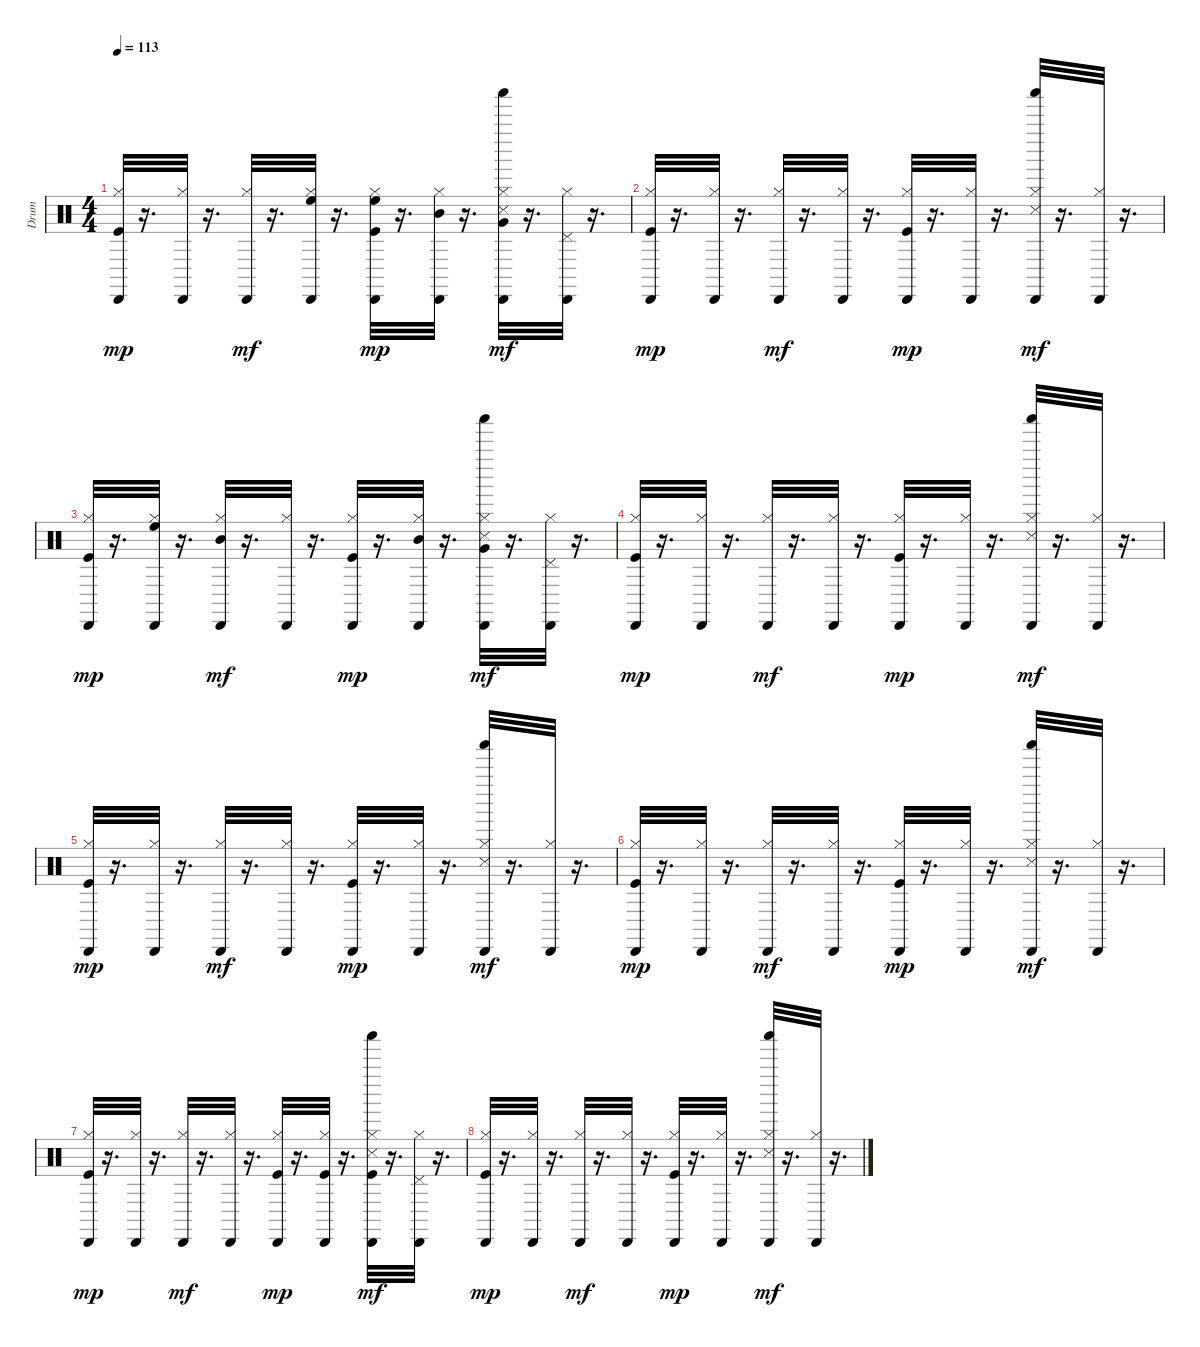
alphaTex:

\track ("Drum" "Drum") {instrument percussion}
\staff {score}
\articulation defaults
\ts (4 4)
\tempo 113
\clef neutral
\ks c
("Hi-Hat (closed)" "Kick (hit)" "Cabasa (hit)").32{dy mp} r.16{d} ("Hi-Hat (closed)" "Cabasa (hit)").32 r.16{d} ("Hi-Hat (closed)" "Cabasa (hit)").32{dy mf} r.16{d} ("Hi-Hat (closed)" "High Floor Tom (hit)" "Cabasa (hit)").32 r.16{d} ("Hi-Hat (closed)" "High Floor Tom (hit)" "Kick (hit)" "Cabasa (hit)").32{dy mp} r.16{d} ("Hi-Hat (closed)" "Mid Tom (hit)" "Cabasa (hit)").32 r.16{d} ("Hi-Hat (closed)" "Very Low Tom (hit)" "Shaker (hit)" "Snare (side stick) 3" "Cabasa (hit)").32{dy mf} r.16{d} ("Hi-Hat (closed)" "Pedal Hi-Hat (hit)" "Cabasa (hit)").32 r.16{d} |
("Hi-Hat (closed)" "Kick (hit)" "Cabasa (hit)").32{dy mp} r.16{d} ("Hi-Hat (closed)" "Cabasa (hit)").32 r.16{d} ("Hi-Hat (closed)" "Cabasa (hit)").32{dy mf} r.16{d} ("Hi-Hat (closed)" "Cabasa (hit)").32 r.16{d} ("Hi-Hat (closed)" "Kick (hit)" "Cabasa (hit)").32{dy mp} r.16{d} ("Hi-Hat (closed)" "Cabasa (hit)").32 r.16{d} ("Hi-Hat (closed)" "Shaker (hit)" "Snare (side stick) 3" "Cabasa (hit)").32{dy mf} r.16{d} ("Hi-Hat (closed)" "Cabasa (hit)").32 r.16{d} |
("Hi-Hat (closed)" "Kick (hit)" "Cabasa (hit)").32{dy mp} r.16{d} ("Hi-Hat (closed)" "High Floor Tom (hit)" "Cabasa (hit)").32 r.16{d} ("Hi-Hat (closed)" "Mid Tom (hit)" "Cabasa (hit)").32{dy mf} r.16{d} ("Hi-Hat (closed)" "Cabasa (hit)").32 r.16{d} ("Hi-Hat (closed)" "Kick (hit)" "Cabasa (hit)").32{dy mp} r.16{d} ("Hi-Hat (closed)" "Mid Tom (hit)" "Cabasa (hit)").32 r.16{d} ("Hi-Hat (closed)" "Very Low Tom (hit)" "Shaker (hit)" "Snare (side stick) 3" "Cabasa (hit)").32{dy mf} r.16{d} ("Hi-Hat (closed)" "Pedal Hi-Hat (hit)" "Cabasa (hit)").32 r.16{d} |
("Hi-Hat (closed)" "Kick (hit)" "Cabasa (hit)").32{dy mp} r.16{d} ("Hi-Hat (closed)" "Cabasa (hit)").32 r.16{d} ("Hi-Hat (closed)" "Cabasa (hit)").32{dy mf} r.16{d} ("Hi-Hat (closed)" "Cabasa (hit)").32 r.16{d} ("Hi-Hat (closed)" "Kick (hit)" "Cabasa (hit)").32{dy mp} r.16{d} ("Hi-Hat (closed)" "Cabasa (hit)").32 r.16{d} ("Hi-Hat (closed)" "Shaker (hit)" "Snare (side stick) 3" "Cabasa (hit)").32{dy mf} r.16{d} ("Hi-Hat (closed)" "Cabasa (hit)").32 r.16{d} |
("Hi-Hat (closed)" "Kick (hit)" "Cabasa (hit)").32{dy mp} r.16{d} ("Hi-Hat (closed)" "Cabasa (hit)").32 r.16{d} ("Hi-Hat (closed)" "Cabasa (hit)").32{dy mf} r.16{d} ("Hi-Hat (closed)" "Cabasa (hit)").32 r.16{d} ("Hi-Hat (closed)" "Kick (hit)" "Cabasa (hit)").32{dy mp} r.16{d} ("Hi-Hat (closed)" "Cabasa (hit)").32 r.16{d} ("Hi-Hat (closed)" "Shaker (hit)" "Snare (side stick) 3" "Cabasa (hit)").32{dy mf} r.16{d} ("Hi-Hat (closed)" "Cabasa (hit)").32 r.16{d} |
("Hi-Hat (closed)" "Kick (hit)" "Cabasa (hit)").32{dy mp} r.16{d} ("Hi-Hat (closed)" "Cabasa (hit)").32 r.16{d} ("Hi-Hat (closed)" "Cabasa (hit)").32{dy mf} r.16{d} ("Hi-Hat (closed)" "Cabasa (hit)").32 r.16{d} ("Hi-Hat (closed)" "Kick (hit)" "Cabasa (hit)").32{dy mp} r.16{d} ("Hi-Hat (closed)" "Cabasa (hit)").32 r.16{d} ("Hi-Hat (closed)" "Shaker (hit)" "Snare (side stick) 3" "Cabasa (hit)").32{dy mf} r.16{d} ("Hi-Hat (closed)" "Cabasa (hit)").32 r.16{d} |
("Hi-Hat (closed)" "Kick (hit)" "Cabasa (hit)").32{dy mp} r.16{d} ("Hi-Hat (closed)" "Cabasa (hit)").32 r.16{d} ("Hi-Hat (closed)" "Cabasa (hit)").32{dy mf} r.16{d} ("Hi-Hat (closed)" "Cabasa (hit)").32 r.16{d} ("Hi-Hat (closed)" "Kick (hit)" "Cabasa (hit)").32{dy mp} r.16{d} ("Hi-Hat (closed)" "Kick (hit)" "Cabasa (hit)").32 r.16{d} ("Hi-Hat (closed)" "Shaker (hit)" "Snare (side stick) 3" "Kick (hit)" "Cabasa (hit)").32{dy mf} r.16{d} ("Hi-Hat (closed)" "Pedal Hi-Hat (hit)" "Cabasa (hit)").32 r.16{d} |
("Hi-Hat (closed)" "Kick (hit)" "Cabasa (hit)").32{dy mp} r.16{d} ("Hi-Hat (closed)" "Cabasa (hit)").32 r.16{d} ("Hi-Hat (closed)" "Cabasa (hit)").32{dy mf} r.16{d} ("Hi-Hat (closed)" "Cabasa (hit)").32 r.16{d} ("Hi-Hat (closed)" "Kick (hit)" "Cabasa (hit)").32{dy mp} r.16{d} ("Hi-Hat (closed)" "Cabasa (hit)").32 r.16{d} ("Hi-Hat (closed)" "Shaker (hit)" "Snare (side stick) 3" "Cabasa (hit)").32{dy mf} r.16{d} ("Hi-Hat (closed)" "Cabasa (hit)").32 r.16{d}
